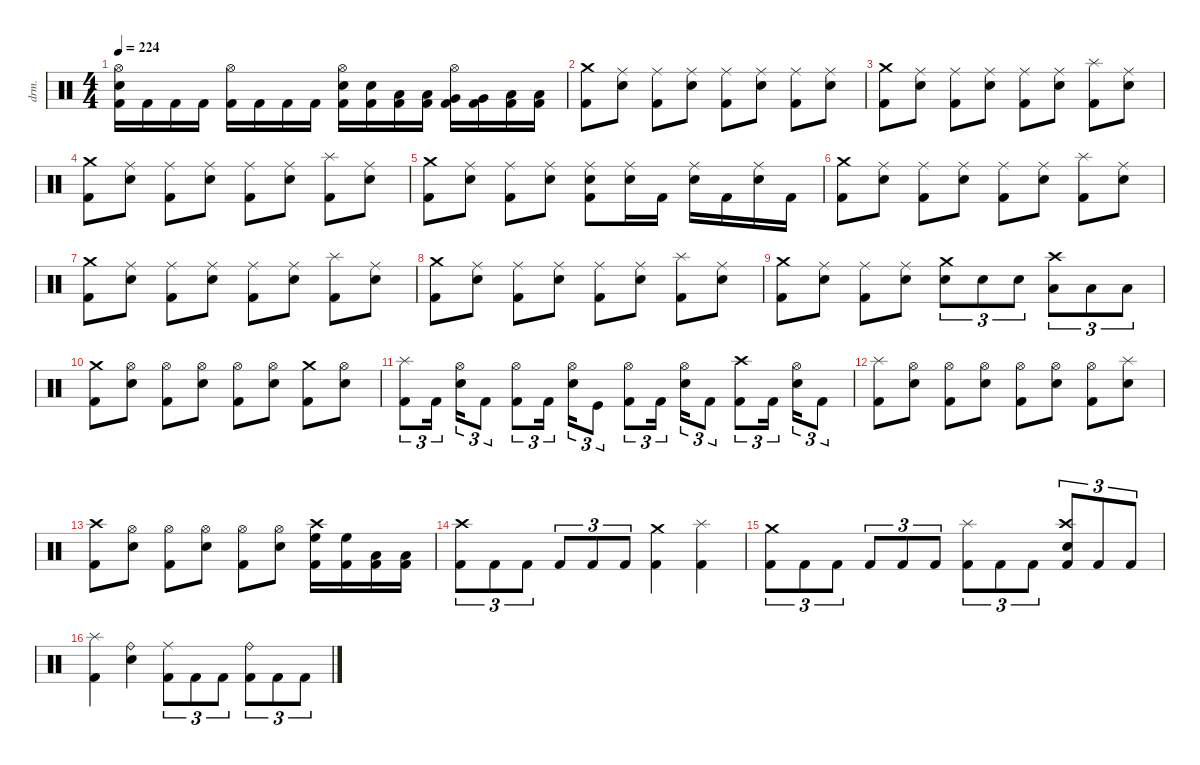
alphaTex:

\defaultSystemsLayout 4
\hideDynamics
\bracketExtendMode nobrackets
\otherSystemsTrackNameOrientation horizontal
\track ("Percussion" "drm.") {instrument percussion}
\staff {score}
\articulation defaults
\ts (4 4)
\tempo 224
\clef neutral
\ks c
("Hi-Hat (open)" "Snare (hit) 2" "Kick (hit) 2").16{dy f beam Down} "Kick (hit) 2".16{beam Down} "Kick (hit) 2".16{beam Down} "Kick (hit) 2".16{beam Down} ("Hi-Hat (open)" "Kick (hit) 2").16{beam Down} "Kick (hit) 2".16{beam Down} "Kick (hit) 2".16{beam Down} "Kick (hit) 2".16{beam Down} ("Hi-Hat (open)" "Snare (hit) 2" "Kick (hit) 2").16{beam Down} ("Snare (hit) 2" "Kick (hit) 2").16{beam Down} ("Low Tom (hit)" "Kick (hit) 2").16{beam Down} ("Low Tom (hit)" "Kick (hit) 2").16{beam Down} ("Hi-Hat (open)" "Very Low Tom (hit)" "Kick (hit) 2").16{beam Down} ("Very Low Tom (hit)" "Kick (hit) 2").16{beam Down} ("Low Tom (hit)" "Kick (hit) 2").16{beam Down} ("Low Tom (hit)" "Kick (hit) 2").16{beam Down} |
("Crash medium (hit)" "Kick (hit) 2").8{beam Down} ("Ride (middle)" "Snare (hit) 2").8{beam Down} ("Ride (middle)" "Kick (hit) 2").8{beam Down} ("Ride (middle)" "Snare (hit) 2").8{beam Down} ("Ride (middle)" "Kick (hit) 2").8{beam Down} ("Ride (middle)" "Snare (hit) 2").8{beam Down} ("Ride (middle)" "Kick (hit) 2").8{beam Down} ("Ride (middle)" "Snare (hit) 2").8{beam Down} |
("Crash medium (hit)" "Kick (hit) 2").8{beam Down} ("Ride (middle)" "Snare (hit) 2").8{beam Down} ("Ride (middle)" "Kick (hit) 2").8{beam Down} ("Ride (middle)" "Snare (hit) 2").8{beam Down} ("Ride (middle)" "Kick (hit) 2").8{beam Down} ("Ride (middle)" "Snare (hit) 2").8{beam Down} ("Splash (hit)" "Kick (hit) 2").8{beam Down} ("Ride (middle)" "Snare (hit) 2").8{beam Down} |
("Crash medium (hit)" "Kick (hit) 2").8{beam Down} ("Ride (middle)" "Snare (hit) 2").8{beam Down} ("Ride (middle)" "Kick (hit) 2").8{beam Down} ("Ride (middle)" "Snare (hit) 2").8{beam Down} ("Ride (middle)" "Kick (hit) 2").8{beam Down} ("Ride (middle)" "Snare (hit) 2").8{beam Down} ("Splash (hit)" "Kick (hit) 2").8{beam Down} ("Ride (middle)" "Snare (hit) 2").8{beam Down} |
("Crash medium (hit)" "Kick (hit) 2").8{beam Down} ("Ride (middle)" "Snare (hit) 2").8{beam Down} ("Ride (middle)" "Kick (hit) 2").8{beam Down} ("Ride (middle)" "Snare (hit) 2").8{beam Down} ("Ride (middle)" "Snare (hit) 2" "Kick (hit) 2").8{beam Down} ("Ride (middle)" "Snare (hit) 2").16{beam Down} "Kick (hit) 2".16{beam Down} ("Ride (middle)" "Snare (hit) 2").16{beam Down} "Kick (hit) 2".16{beam Down} ("Ride (middle)" "Snare (hit) 2").16{beam Down} "Kick (hit) 2".16{beam Down} |
("Crash medium (hit)" "Kick (hit) 2").8{beam Down} ("Ride (middle)" "Snare (hit) 2").8{beam Down} ("Ride (middle)" "Kick (hit) 2").8{beam Down} ("Ride (middle)" "Snare (hit) 2").8{beam Down} ("Ride (middle)" "Kick (hit) 2").8{beam Down} ("Ride (middle)" "Snare (hit) 2").8{beam Down} ("Splash (hit)" "Kick (hit) 2").8{beam Down} ("Ride (middle)" "Snare (hit) 2").8{beam Down} |
("Crash medium (hit)" "Kick (hit) 2").8{beam Down} ("Ride (middle)" "Snare (hit) 2").8{beam Down} ("Ride (middle)" "Kick (hit) 2").8{beam Down} ("Ride (middle)" "Snare (hit) 2").8{beam Down} ("Ride (middle)" "Kick (hit) 2").8{beam Down} ("Ride (middle)" "Snare (hit) 2").8{beam Down} ("Splash (hit)" "Kick (hit) 2").8{beam Down} ("Ride (middle)" "Snare (hit) 2").8{beam Down} |
("Crash medium (hit)" "Kick (hit) 2").8{beam Down} ("Ride (middle)" "Snare (hit) 2").8{beam Down} ("Ride (middle)" "Kick (hit) 2").8{beam Down} ("Ride (middle)" "Snare (hit) 2").8{beam Down} ("Ride (middle)" "Kick (hit) 2").8{beam Down} ("Ride (middle)" "Snare (hit) 2").8{beam Down} ("Splash (hit)" "Kick (hit) 2").8{beam Down} ("Ride (middle)" "Snare (hit) 2").8{beam Down} |
("Crash medium (hit)" "Kick (hit) 2").8{beam Down} ("Ride (middle)" "Snare (hit) 2").8{beam Down} ("Ride (middle)" "Kick (hit) 2").8{beam Down} ("Ride (middle)" "Snare (hit) 2").8{beam Down} ("Crash medium (hit)" "Snare (hit) 2").8{tu (3 2) beam Down} "Snare (hit) 2".8{tu (3 2) beam Down} "Snare (hit) 2".8{tu (3 2) beam Down} ("Crash high (hit)" "Low Tom (hit)").8{tu (3 2) beam Down} "Low Tom (hit)".8{tu (3 2) beam Down} "Low Tom (hit)".8{tu (3 2) beam Down} |
("Crash medium (hit)" "Kick (hit) 2").8{beam Down} ("Hi-Hat (open)" "Snare (hit) 2").8{beam Down} ("Hi-Hat (open)" "Kick (hit) 2").8{beam Down} ("Hi-Hat (open)" "Snare (hit) 2").8{beam Down} ("Hi-Hat (open)" "Kick (hit) 2").8{beam Down} ("Hi-Hat (open)" "Snare (hit) 2").8{beam Down} ("Crash medium (hit)" "Kick (hit) 2").8{beam Down} ("Hi-Hat (open)" "Snare (hit) 2").8{beam Down} |
("Splash (hit)" "Kick (hit) 2").8{tu (3 2) beam Down} "Kick (hit) 2".16{tu (3 2) beam Down} ("Hi-Hat (open)" "Snare (hit) 2").16{tu (3 2) beam Down} "Kick (hit) 2".8{tu (3 2) beam Down} ("Hi-Hat (open)" "Kick (hit) 2").8{tu (3 2) beam Down} "Kick (hit) 2".16{tu (3 2) beam Down} ("Hi-Hat (open)" "Snare (hit) 2").16{tu (3 2) beam Down} "Kick (hit)".8{tu (3 2) beam Down} ("Hi-Hat (open)" "Kick (hit) 2").8{tu (3 2) beam Down} "Kick (hit) 2".16{tu (3 2) beam Down} ("Hi-Hat (open)" "Snare (hit) 2").16{tu (3 2) beam Down} "Kick (hit) 2".8{tu (3 2) beam Down} ("Crash high (hit)" "Kick (hit) 2").8{tu (3 2) beam Down} "Kick (hit) 2".16{tu (3 2) beam Down} ("Hi-Hat (open)" "Snare (hit) 2").16{tu (3 2) beam Down} "Kick (hit) 2".8{tu (3 2) beam Down} |
("Splash (hit)" "Kick (hit) 2").8{beam Down} ("Hi-Hat (open)" "Snare (hit) 2").8{beam Down} ("Hi-Hat (open)" "Kick (hit) 2").8{beam Down} ("Hi-Hat (open)" "Snare (hit) 2").8{beam Down} ("Hi-Hat (open)" "Kick (hit) 2").8{beam Down} ("Hi-Hat (open)" "Snare (hit) 2").8{beam Down} ("Hi-Hat (open)" "Kick (hit) 2").8{beam Down} ("Splash (hit)" "Snare (hit) 2").8{beam Down} |
("Crash high (hit)" "Kick (hit) 2").8{beam Down} ("Hi-Hat (open)" "Snare (hit) 2").8{beam Down} ("Hi-Hat (open)" "Kick (hit) 2").8{beam Down} ("Hi-Hat (open)" "Snare (hit) 2").8{beam Down} ("Hi-Hat (open)" "Kick (hit) 2").8{beam Down} ("Hi-Hat (open)" "Snare (hit) 2").8{beam Down} ("Crash high (hit)" "High Floor Tom (hit)" "Kick (hit) 2").16{beam Down} ("High Floor Tom (hit)" "Kick (hit) 2").16{beam Down} ("Low Tom (hit)" "Kick (hit) 2").16{beam Down} ("Low Tom (hit)" "Kick (hit) 2").16{beam Down} |
("Crash high (hit)" "Kick (hit) 2").8{tu (3 2) beam Down} "Kick (hit) 2".8{tu (3 2) beam Down} "Kick (hit) 2".8{tu (3 2) beam Down} "Kick (hit) 2".8{tu (3 2) beam Up} "Kick (hit) 2".8{tu (3 2) beam Up} "Kick (hit) 2".8{tu (3 2) beam Up} ("Crash medium (hit)" "Kick (hit) 2").4{beam Down} ("Splash (hit)" "Kick (hit) 2").4{beam Down} |
("Crash medium (hit)" "Kick (hit) 2").8{tu (3 2) beam Down} "Kick (hit) 2".8{tu (3 2) beam Down} "Kick (hit) 2".8{tu (3 2) beam Down} "Kick (hit) 2".8{tu (3 2) beam Up} "Kick (hit) 2".8{tu (3 2) beam Up} "Kick (hit) 2".8{tu (3 2) beam Up} ("Splash (hit)" "Kick (hit) 2").8{tu (3 2) beam Down} "Kick (hit) 2".8{tu (3 2) beam Down} "Kick (hit) 2".8{tu (3 2) beam Down} ("Crash high (hit)" "Snare (hit) 2" "Kick (hit) 2").8{tu (3 2) beam Up} "Kick (hit) 2".8{tu (3 2) beam Up} "Kick (hit) 2".8{tu (3 2) beam Up} |
("Splash (hit)" "Kick (hit) 2").4{beam Down} ("Ride (bell)" "Snare (hit) 2").4{beam Down} ("Ride (middle)" "Kick (hit) 2").8{tu (3 2) beam Down} "Kick (hit) 2".8{tu (3 2) beam Down} "Kick (hit) 2".8{tu (3 2) beam Down} ("Ride (bell)" "Kick (hit) 2").8{tu (3 2) beam Down} "Kick (hit) 2".8{tu (3 2) beam Down} "Kick (hit) 2".8{tu (3 2) beam Down}
